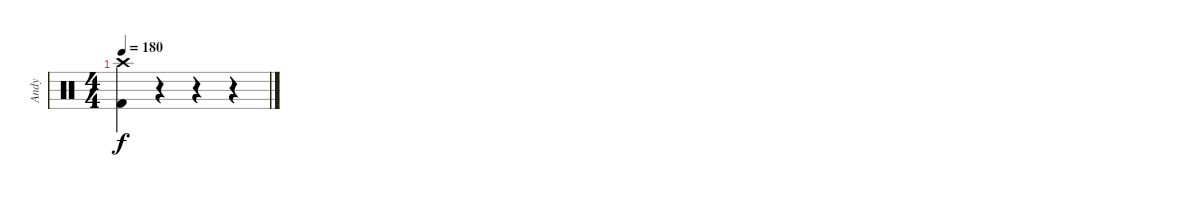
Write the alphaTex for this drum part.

\track ("Andy" "Andy") {instrument percussion}
\staff {score}
\articulation defaults
\ts (4 4)
\tempo 180
\clef neutral
\ks c
("Kick (hit) 2" "Crash high (hit)").4{dy f} r.4 r.4 r.4
